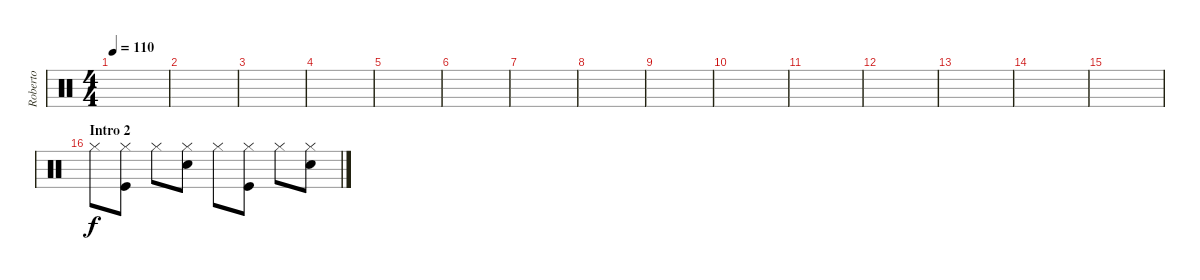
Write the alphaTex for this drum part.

\track ("Roberto" "Roberto") {instrument percussion}
\staff {score}
\articulation defaults
\ts (4 4)
\tempo 110
\clef neutral
\ks c
|
|
|
|
|
|
|
|
|
|
|
|
|
|
|
\section ("" "Intro 2")
"Hi-Hat (closed)".8{volume 11} ("Hi-Hat (closed)" "Kick (hit)").8 "Hi-Hat (closed)".8 ("Hi-Hat (closed)" "Snare (hit) 2").8 "Hi-Hat (closed)".8 ("Hi-Hat (closed)" "Kick (hit)").8 "Hi-Hat (closed)".8 ("Hi-Hat (closed)" "Snare (hit) 2").8
